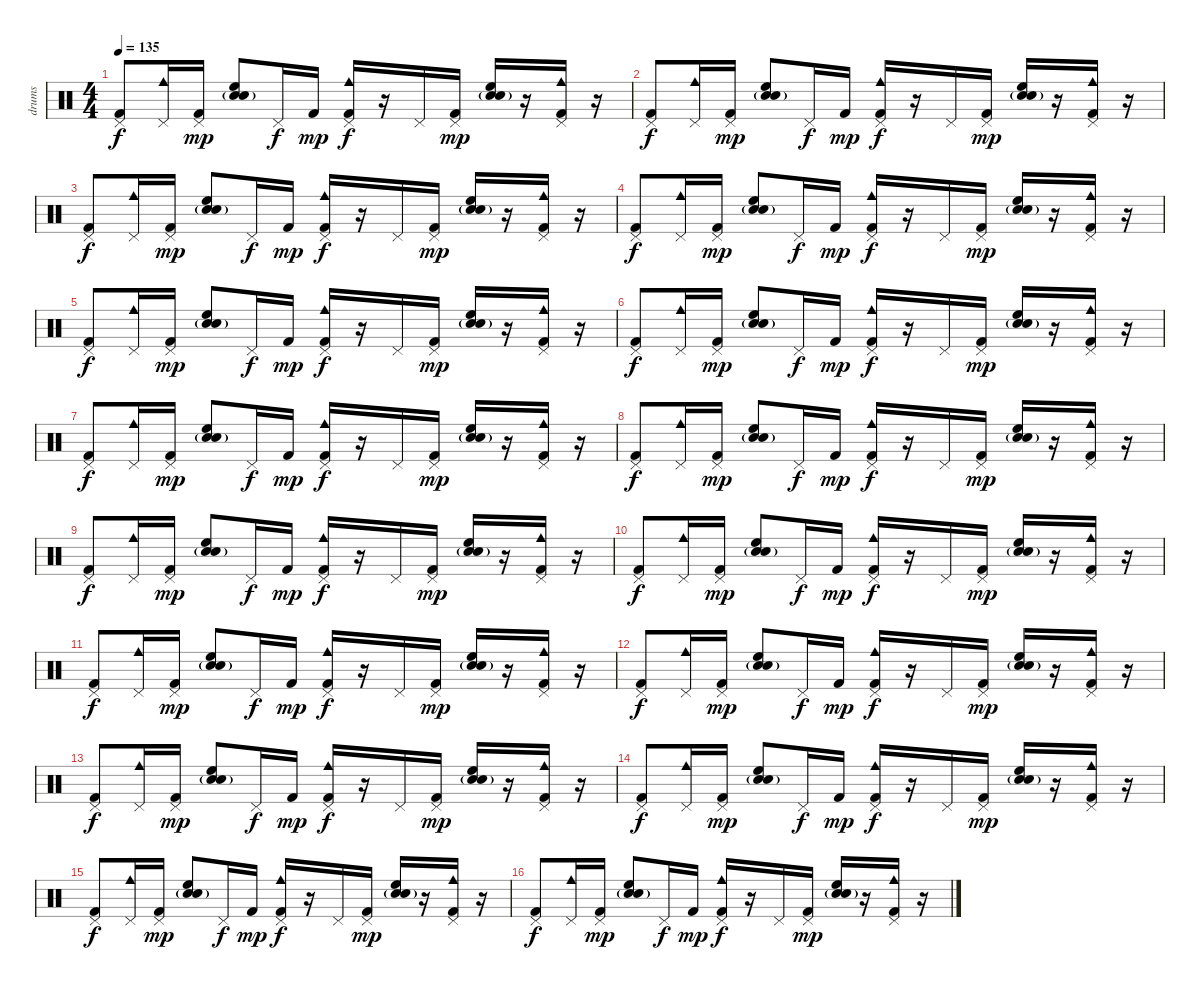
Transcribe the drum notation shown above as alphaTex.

\track ("drums" "drums") {instrument percussion}
\staff {score}
\articulation defaults
\ts (4 4)
\tempo 135
\clef neutral
\ks c
("Pedal Hi-Hat (hit)" "Kick (hit) 2").8{dy f} ("Cowbell medium (hit)" "Pedal Hi-Hat (hit)").16 ("Pedal Hi-Hat (hit)" "Kick (hit) 2").16{dy mp} ("Electric Snare (hit)"{g} "Hand Clap (hit)"{g} "High Floor Tom (hit)").8 "Pedal Hi-Hat (hit)".16{dy f} "Kick (hit) 2".16{dy mp} ("Cowbell medium (hit)" "Pedal Hi-Hat (hit)" "Kick (hit) 2").16{dy f} r.16 "Pedal Hi-Hat (hit)".16 ("Pedal Hi-Hat (hit)" "Kick (hit) 2").16{dy mp} ("Electric Snare (hit)"{g} "Hand Clap (hit)"{g} "High Floor Tom (hit)").16 r.16 ("Cowbell medium (hit)" "Pedal Hi-Hat (hit)" "Kick (hit) 2").16 r.16 |
("Pedal Hi-Hat (hit)" "Kick (hit) 2").8{dy f} ("Cowbell medium (hit)" "Pedal Hi-Hat (hit)").16 ("Pedal Hi-Hat (hit)" "Kick (hit) 2").16{dy mp} ("Electric Snare (hit)"{g} "Hand Clap (hit)"{g} "High Floor Tom (hit)").8 "Pedal Hi-Hat (hit)".16{dy f} "Kick (hit) 2".16{dy mp} ("Cowbell medium (hit)" "Pedal Hi-Hat (hit)" "Kick (hit) 2").16{dy f} r.16 "Pedal Hi-Hat (hit)".16 ("Pedal Hi-Hat (hit)" "Kick (hit) 2").16{dy mp} ("Electric Snare (hit)"{g} "Hand Clap (hit)"{g} "High Floor Tom (hit)").16 r.16 ("Cowbell medium (hit)" "Pedal Hi-Hat (hit)" "Kick (hit) 2").16 r.16 |
("Pedal Hi-Hat (hit)" "Kick (hit) 2").8{dy f} ("Cowbell medium (hit)" "Pedal Hi-Hat (hit)").16 ("Pedal Hi-Hat (hit)" "Kick (hit) 2").16{dy mp} ("Electric Snare (hit)"{g} "Hand Clap (hit)"{g} "High Floor Tom (hit)").8 "Pedal Hi-Hat (hit)".16{dy f} "Kick (hit) 2".16{dy mp} ("Cowbell medium (hit)" "Pedal Hi-Hat (hit)" "Kick (hit) 2").16{dy f} r.16 "Pedal Hi-Hat (hit)".16 ("Pedal Hi-Hat (hit)" "Kick (hit) 2").16{dy mp} ("Electric Snare (hit)"{g} "Hand Clap (hit)"{g} "High Floor Tom (hit)").16 r.16 ("Cowbell medium (hit)" "Pedal Hi-Hat (hit)" "Kick (hit) 2").16 r.16 |
("Pedal Hi-Hat (hit)" "Kick (hit) 2").8{dy f} ("Cowbell medium (hit)" "Pedal Hi-Hat (hit)").16 ("Pedal Hi-Hat (hit)" "Kick (hit) 2").16{dy mp} ("Electric Snare (hit)"{g} "Hand Clap (hit)"{g} "High Floor Tom (hit)").8 "Pedal Hi-Hat (hit)".16{dy f} "Kick (hit) 2".16{dy mp} ("Cowbell medium (hit)" "Pedal Hi-Hat (hit)" "Kick (hit) 2").16{dy f} r.16 "Pedal Hi-Hat (hit)".16 ("Pedal Hi-Hat (hit)" "Kick (hit) 2").16{dy mp} ("Electric Snare (hit)"{g} "Hand Clap (hit)"{g} "High Floor Tom (hit)").16 r.16 ("Cowbell medium (hit)" "Pedal Hi-Hat (hit)" "Kick (hit) 2").16 r.16 |
("Pedal Hi-Hat (hit)" "Kick (hit) 2").8{dy f} ("Cowbell medium (hit)" "Pedal Hi-Hat (hit)").16 ("Pedal Hi-Hat (hit)" "Kick (hit) 2").16{dy mp} ("Electric Snare (hit)"{g} "Hand Clap (hit)"{g} "High Floor Tom (hit)").8 "Pedal Hi-Hat (hit)".16{dy f} "Kick (hit) 2".16{dy mp} ("Cowbell medium (hit)" "Pedal Hi-Hat (hit)" "Kick (hit) 2").16{dy f} r.16 "Pedal Hi-Hat (hit)".16 ("Pedal Hi-Hat (hit)" "Kick (hit) 2").16{dy mp} ("Electric Snare (hit)"{g} "Hand Clap (hit)"{g} "High Floor Tom (hit)").16 r.16 ("Cowbell medium (hit)" "Pedal Hi-Hat (hit)" "Kick (hit) 2").16 r.16 |
("Pedal Hi-Hat (hit)" "Kick (hit) 2").8{dy f} ("Cowbell medium (hit)" "Pedal Hi-Hat (hit)").16 ("Pedal Hi-Hat (hit)" "Kick (hit) 2").16{dy mp} ("Electric Snare (hit)"{g} "Hand Clap (hit)"{g} "High Floor Tom (hit)").8 "Pedal Hi-Hat (hit)".16{dy f} "Kick (hit) 2".16{dy mp} ("Cowbell medium (hit)" "Pedal Hi-Hat (hit)" "Kick (hit) 2").16{dy f} r.16 "Pedal Hi-Hat (hit)".16 ("Pedal Hi-Hat (hit)" "Kick (hit) 2").16{dy mp} ("Electric Snare (hit)"{g} "Hand Clap (hit)"{g} "High Floor Tom (hit)").16 r.16 ("Cowbell medium (hit)" "Pedal Hi-Hat (hit)" "Kick (hit) 2").16 r.16 |
("Pedal Hi-Hat (hit)" "Kick (hit) 2").8{dy f} ("Cowbell medium (hit)" "Pedal Hi-Hat (hit)").16 ("Pedal Hi-Hat (hit)" "Kick (hit) 2").16{dy mp} ("Electric Snare (hit)"{g} "Hand Clap (hit)"{g} "High Floor Tom (hit)").8 "Pedal Hi-Hat (hit)".16{dy f} "Kick (hit) 2".16{dy mp} ("Cowbell medium (hit)" "Pedal Hi-Hat (hit)" "Kick (hit) 2").16{dy f} r.16 "Pedal Hi-Hat (hit)".16 ("Pedal Hi-Hat (hit)" "Kick (hit) 2").16{dy mp} ("Electric Snare (hit)"{g} "Hand Clap (hit)"{g} "High Floor Tom (hit)").16 r.16 ("Cowbell medium (hit)" "Pedal Hi-Hat (hit)" "Kick (hit) 2").16 r.16 |
("Pedal Hi-Hat (hit)" "Kick (hit) 2").8{dy f} ("Cowbell medium (hit)" "Pedal Hi-Hat (hit)").16 ("Pedal Hi-Hat (hit)" "Kick (hit) 2").16{dy mp} ("Electric Snare (hit)"{g} "Hand Clap (hit)"{g} "High Floor Tom (hit)").8 "Pedal Hi-Hat (hit)".16{dy f} "Kick (hit) 2".16{dy mp} ("Cowbell medium (hit)" "Pedal Hi-Hat (hit)" "Kick (hit) 2").16{dy f} r.16 "Pedal Hi-Hat (hit)".16 ("Pedal Hi-Hat (hit)" "Kick (hit) 2").16{dy mp} ("Electric Snare (hit)"{g} "Hand Clap (hit)"{g} "High Floor Tom (hit)").16 r.16 ("Cowbell medium (hit)" "Pedal Hi-Hat (hit)" "Kick (hit) 2").16 r.16 |
("Pedal Hi-Hat (hit)" "Kick (hit) 2").8{dy f} ("Cowbell medium (hit)" "Pedal Hi-Hat (hit)").16 ("Pedal Hi-Hat (hit)" "Kick (hit) 2").16{dy mp} ("Electric Snare (hit)"{g} "Hand Clap (hit)"{g} "High Floor Tom (hit)").8 "Pedal Hi-Hat (hit)".16{dy f} "Kick (hit) 2".16{dy mp} ("Cowbell medium (hit)" "Pedal Hi-Hat (hit)" "Kick (hit) 2").16{dy f} r.16 "Pedal Hi-Hat (hit)".16 ("Pedal Hi-Hat (hit)" "Kick (hit) 2").16{dy mp} ("Electric Snare (hit)"{g} "Hand Clap (hit)"{g} "High Floor Tom (hit)").16 r.16 ("Cowbell medium (hit)" "Pedal Hi-Hat (hit)" "Kick (hit) 2").16 r.16 |
("Pedal Hi-Hat (hit)" "Kick (hit) 2").8{dy f} ("Cowbell medium (hit)" "Pedal Hi-Hat (hit)").16 ("Pedal Hi-Hat (hit)" "Kick (hit) 2").16{dy mp} ("Electric Snare (hit)"{g} "Hand Clap (hit)"{g} "High Floor Tom (hit)").8 "Pedal Hi-Hat (hit)".16{dy f} "Kick (hit) 2".16{dy mp} ("Cowbell medium (hit)" "Pedal Hi-Hat (hit)" "Kick (hit) 2").16{dy f} r.16 "Pedal Hi-Hat (hit)".16 ("Pedal Hi-Hat (hit)" "Kick (hit) 2").16{dy mp} ("Electric Snare (hit)"{g} "Hand Clap (hit)"{g} "High Floor Tom (hit)").16 r.16 ("Cowbell medium (hit)" "Pedal Hi-Hat (hit)" "Kick (hit) 2").16 r.16 |
("Pedal Hi-Hat (hit)" "Kick (hit) 2").8{dy f} ("Cowbell medium (hit)" "Pedal Hi-Hat (hit)").16 ("Pedal Hi-Hat (hit)" "Kick (hit) 2").16{dy mp} ("Electric Snare (hit)"{g} "Hand Clap (hit)"{g} "High Floor Tom (hit)").8 "Pedal Hi-Hat (hit)".16{dy f} "Kick (hit) 2".16{dy mp} ("Cowbell medium (hit)" "Pedal Hi-Hat (hit)" "Kick (hit) 2").16{dy f} r.16 "Pedal Hi-Hat (hit)".16 ("Pedal Hi-Hat (hit)" "Kick (hit) 2").16{dy mp} ("Electric Snare (hit)"{g} "Hand Clap (hit)"{g} "High Floor Tom (hit)").16 r.16 ("Cowbell medium (hit)" "Pedal Hi-Hat (hit)" "Kick (hit) 2").16 r.16 |
("Pedal Hi-Hat (hit)" "Kick (hit) 2").8{dy f} ("Cowbell medium (hit)" "Pedal Hi-Hat (hit)").16 ("Pedal Hi-Hat (hit)" "Kick (hit) 2").16{dy mp} ("Electric Snare (hit)"{g} "Hand Clap (hit)"{g} "High Floor Tom (hit)").8 "Pedal Hi-Hat (hit)".16{dy f} "Kick (hit) 2".16{dy mp} ("Cowbell medium (hit)" "Pedal Hi-Hat (hit)" "Kick (hit) 2").16{dy f} r.16 "Pedal Hi-Hat (hit)".16 ("Pedal Hi-Hat (hit)" "Kick (hit) 2").16{dy mp} ("Electric Snare (hit)"{g} "Hand Clap (hit)"{g} "High Floor Tom (hit)").16 r.16 ("Cowbell medium (hit)" "Pedal Hi-Hat (hit)" "Kick (hit) 2").16 r.16 |
("Pedal Hi-Hat (hit)" "Kick (hit) 2").8{dy f} ("Cowbell medium (hit)" "Pedal Hi-Hat (hit)").16 ("Pedal Hi-Hat (hit)" "Kick (hit) 2").16{dy mp} ("Electric Snare (hit)"{g} "Hand Clap (hit)"{g} "High Floor Tom (hit)").8 "Pedal Hi-Hat (hit)".16{dy f} "Kick (hit) 2".16{dy mp} ("Cowbell medium (hit)" "Pedal Hi-Hat (hit)" "Kick (hit) 2").16{dy f} r.16 "Pedal Hi-Hat (hit)".16 ("Pedal Hi-Hat (hit)" "Kick (hit) 2").16{dy mp} ("Electric Snare (hit)"{g} "Hand Clap (hit)"{g} "High Floor Tom (hit)").16 r.16 ("Cowbell medium (hit)" "Pedal Hi-Hat (hit)" "Kick (hit) 2").16 r.16 |
("Pedal Hi-Hat (hit)" "Kick (hit) 2").8{dy f} ("Cowbell medium (hit)" "Pedal Hi-Hat (hit)").16 ("Pedal Hi-Hat (hit)" "Kick (hit) 2").16{dy mp} ("Electric Snare (hit)"{g} "Hand Clap (hit)"{g} "High Floor Tom (hit)").8 "Pedal Hi-Hat (hit)".16{dy f} "Kick (hit) 2".16{dy mp} ("Cowbell medium (hit)" "Pedal Hi-Hat (hit)" "Kick (hit) 2").16{dy f} r.16 "Pedal Hi-Hat (hit)".16 ("Pedal Hi-Hat (hit)" "Kick (hit) 2").16{dy mp} ("Electric Snare (hit)"{g} "Hand Clap (hit)"{g} "High Floor Tom (hit)").16 r.16 ("Cowbell medium (hit)" "Pedal Hi-Hat (hit)" "Kick (hit) 2").16 r.16 |
("Pedal Hi-Hat (hit)" "Kick (hit) 2").8{dy f} ("Cowbell medium (hit)" "Pedal Hi-Hat (hit)").16 ("Pedal Hi-Hat (hit)" "Kick (hit) 2").16{dy mp} ("Electric Snare (hit)"{g} "Hand Clap (hit)"{g} "High Floor Tom (hit)").8 "Pedal Hi-Hat (hit)".16{dy f} "Kick (hit) 2".16{dy mp} ("Cowbell medium (hit)" "Pedal Hi-Hat (hit)" "Kick (hit) 2").16{dy f} r.16 "Pedal Hi-Hat (hit)".16 ("Pedal Hi-Hat (hit)" "Kick (hit) 2").16{dy mp} ("Electric Snare (hit)"{g} "Hand Clap (hit)"{g} "High Floor Tom (hit)").16 r.16 ("Cowbell medium (hit)" "Pedal Hi-Hat (hit)" "Kick (hit) 2").16 r.16 |
("Pedal Hi-Hat (hit)" "Kick (hit) 2").8{dy f} ("Cowbell medium (hit)" "Pedal Hi-Hat (hit)").16 ("Pedal Hi-Hat (hit)" "Kick (hit) 2").16{dy mp} ("Electric Snare (hit)"{g} "Hand Clap (hit)"{g} "High Floor Tom (hit)").8 "Pedal Hi-Hat (hit)".16{dy f} "Kick (hit) 2".16{dy mp} ("Cowbell medium (hit)" "Pedal Hi-Hat (hit)" "Kick (hit) 2").16{dy f} r.16 "Pedal Hi-Hat (hit)".16 ("Pedal Hi-Hat (hit)" "Kick (hit) 2").16{dy mp} ("Electric Snare (hit)"{g} "Hand Clap (hit)"{g} "High Floor Tom (hit)").16 r.16 ("Cowbell medium (hit)" "Pedal Hi-Hat (hit)" "Kick (hit) 2").16 r.16
